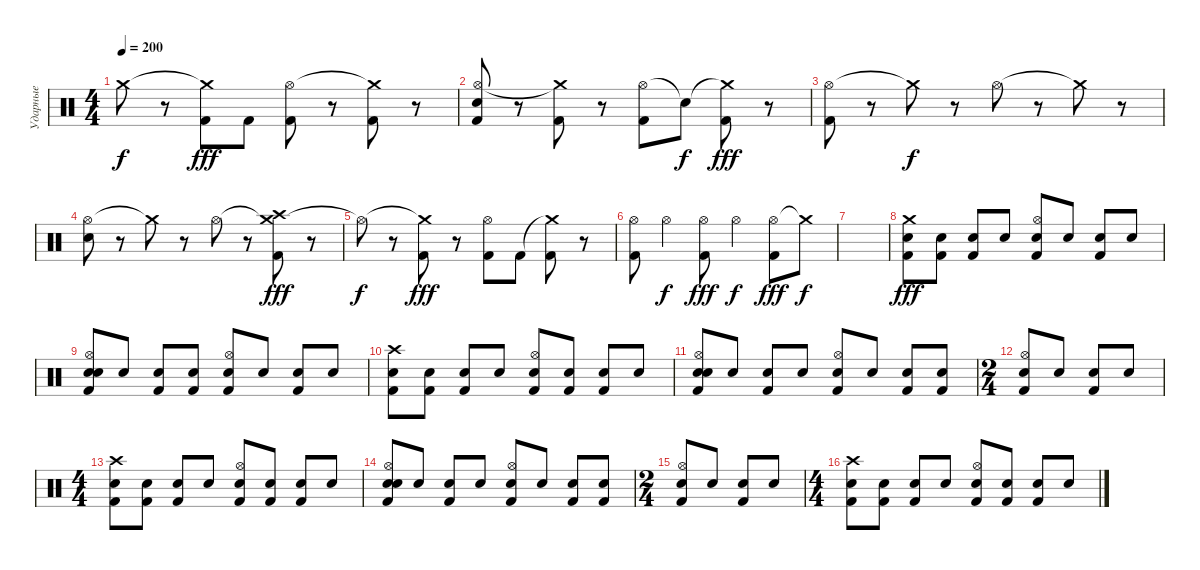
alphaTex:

\track ("Ударные" "Ударные") {instrument percussion}
\staff {score}
\articulation defaults
\ts (4 4)
\tempo 200
\clef neutral
\ks c "Crash medium (hit)".8{dy f}
r.8 ("Crash medium (hit)"{t} "Kick (hit) 2").8{dy fff} "Kick (hit) 2".8 ("Hi-Hat (open)" "Kick (hit) 2").8 r.8 ("Crash medium (hit)"{t} "Kick (hit) 2").8 r.8 |
("Hi-Hat (open)" "Electric Snare (hit)" "Kick (hit) 2").8 r.8 ("Crash medium (hit)"{t} "Kick (hit) 2").8 r.8 ("Hi-Hat (open)" "Kick (hit) 2").8 "Snare (hit)"{t}.8{dy f} ("Crash medium (hit)"{t} "Kick (hit) 2").8{dy fff} r.8 |
("Hi-Hat (open)" "Kick (hit) 2").8 r.8 "Crash medium (hit)"{t}.8{dy f} r.8 "Hi-Hat (open)".8 r.8 "Crash medium (hit)"{t}.8 r.8 |
("Hi-Hat (open)" "Electric Snare (hit)").8 r.8 "Crash medium (hit)"{t}.8 r.8 "Hi-Hat (open)".8 r.8 ("Crash medium (hit)"{t} "Crash high (hit)" "Kick (hit) 2").8{dy fff} r.8 |
"Hi-Hat (open)"{t}.8{dy f} r.8 ("Crash medium (hit)"{t} "Kick (hit) 2").8{dy fff} r.8 ("Hi-Hat (open)" "Kick (hit) 2").8 "Kick (hit) 2".8 ("Crash medium (hit)"{t} "Kick (hit) 2").8 r.8 |
("Hi-Hat (open)" "Kick (hit) 2").8 "Hi-Hat (open)".4{dy f} ("Hi-Hat (open)" "Kick (hit) 2").8{dy fff} "Hi-Hat (open)".4{dy f} ("Hi-Hat (open)" "Kick (hit) 2").8{dy fff} "Crash medium (hit)"{t}.8{dy f} |
|
("Snare (hit)" "Crash medium (hit)" "Kick (hit) 2").8{dy fff} ("Snare (hit)" "Kick (hit) 2").8 ("Snare (hit)" "Kick (hit) 2").8 "Snare (hit)".8 ("Snare (hit)" "Hi-Hat (open)" "Kick (hit) 2").8 "Snare (hit)".8 ("Snare (hit)" "Kick (hit) 2").8 "Snare (hit)".8 |
("Snare (hit)" "Hi-Hat (open)" "Electric Snare (hit)" "Kick (hit) 2").8 "Snare (hit)".8 ("Snare (hit)" "Kick (hit) 2").8 ("Snare (hit)" "Kick (hit) 2").8 ("Snare (hit)" "Hi-Hat (open)" "Kick (hit) 2").8 "Snare (hit)".8 ("Snare (hit)" "Kick (hit) 2").8 "Snare (hit)".8 |
("Snare (hit)" "Crash high (hit)" "Kick (hit) 2").8 ("Snare (hit)" "Kick (hit) 2").8 ("Snare (hit)" "Kick (hit) 2").8 "Snare (hit)".8 ("Snare (hit)" "Hi-Hat (open)" "Kick (hit) 2").8 ("Snare (hit)" "Kick (hit) 2").8 ("Snare (hit)" "Kick (hit) 2").8 "Snare (hit)".8 |
("Snare (hit)" "Hi-Hat (open)" "Electric Snare (hit)" "Kick (hit) 2").8 "Snare (hit)".8 ("Snare (hit)" "Kick (hit) 2").8 "Snare (hit)".8 ("Snare (hit)" "Hi-Hat (open)" "Kick (hit) 2").8 "Snare (hit)".8 ("Snare (hit)" "Kick (hit) 2").8 ("Snare (hit)" "Kick (hit) 2").8 |
\ts (2 4)
("Snare (hit)" "Hi-Hat (open)" "Kick (hit) 2").8 "Snare (hit)".8 ("Snare (hit)" "Kick (hit) 2").8 "Snare (hit)".8 |
\ts (4 4)
("Snare (hit)" "Crash high (hit)" "Kick (hit) 2").8 ("Snare (hit)" "Kick (hit) 2").8 ("Snare (hit)" "Kick (hit) 2").8 "Snare (hit)".8 ("Snare (hit)" "Hi-Hat (open)" "Kick (hit) 2").8 ("Snare (hit)" "Kick (hit) 2").8 ("Snare (hit)" "Kick (hit) 2").8 "Snare (hit)".8 |
("Snare (hit)" "Hi-Hat (open)" "Electric Snare (hit)" "Kick (hit) 2").8 "Snare (hit)".8 ("Snare (hit)" "Kick (hit) 2").8 "Snare (hit)".8 ("Snare (hit)" "Hi-Hat (open)" "Kick (hit) 2").8 "Snare (hit)".8 ("Snare (hit)" "Kick (hit) 2").8 ("Snare (hit)" "Kick (hit) 2").8 |
\ts (2 4)
("Snare (hit)" "Hi-Hat (open)" "Kick (hit) 2").8 "Snare (hit)".8 ("Snare (hit)" "Kick (hit) 2").8 "Snare (hit)".8 |
\ts (4 4)
("Snare (hit)" "Crash high (hit)" "Kick (hit) 2").8 ("Snare (hit)" "Kick (hit) 2").8 ("Snare (hit)" "Kick (hit) 2").8 "Snare (hit)".8 ("Snare (hit)" "Hi-Hat (open)" "Kick (hit) 2").8 ("Snare (hit)" "Kick (hit) 2").8 ("Snare (hit)" "Kick (hit) 2").8 "Snare (hit)".8
